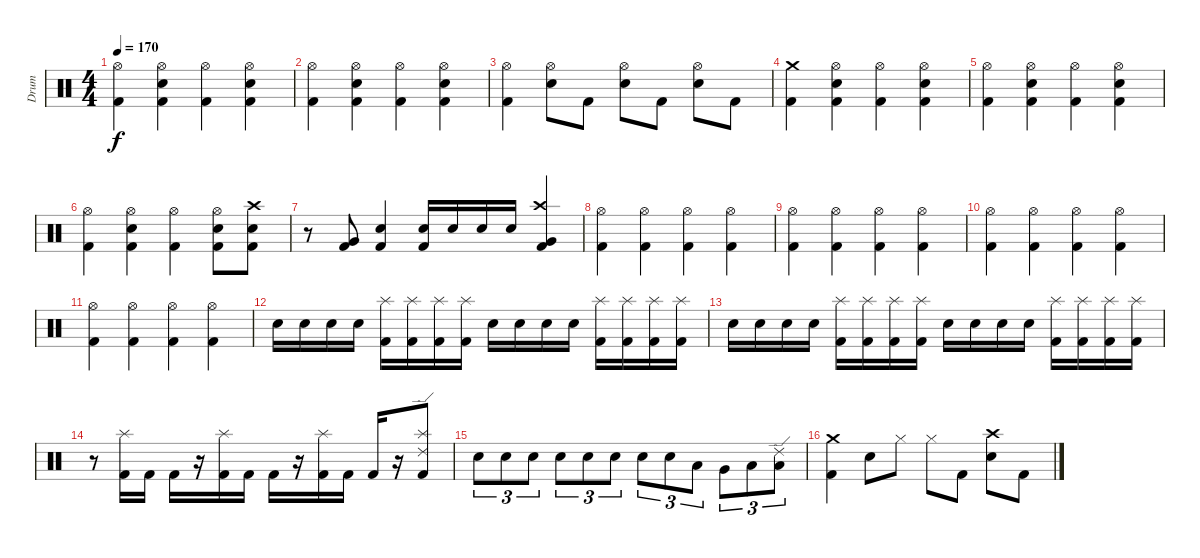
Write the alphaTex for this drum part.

\track ("Drum" "Drum") {instrument percussion}
\staff {score}
\articulation defaults
\ts (4 4)
\tempo 170
\clef neutral
\ks c
("Hi-Hat (open)" "Kick (hit) 2").4{dy f} ("Hi-Hat (open)" "Electric Snare (hit)" "Kick (hit) 2").4 ("Hi-Hat (open)" "Kick (hit) 2").4 ("Hi-Hat (open)" "Electric Snare (hit)" "Kick (hit) 2").4 |
("Hi-Hat (open)" "Kick (hit) 2").4 ("Hi-Hat (open)" "Electric Snare (hit)" "Kick (hit) 2").4 ("Hi-Hat (open)" "Kick (hit) 2").4 ("Hi-Hat (open)" "Electric Snare (hit)" "Kick (hit) 2").4 |
("Hi-Hat (open)" "Kick (hit) 2").4 ("Hi-Hat (open)" "Electric Snare (hit)").8 "Kick (hit) 2".8 ("Hi-Hat (open)" "Electric Snare (hit)").8 "Kick (hit) 2".8 ("Hi-Hat (open)" "Electric Snare (hit)").8 "Kick (hit) 2".8 |
("Crash medium (hit)" "Kick (hit) 2").4 ("Hi-Hat (open)" "Electric Snare (hit)" "Kick (hit) 2").4 ("Hi-Hat (open)" "Kick (hit) 2").4 ("Hi-Hat (open)" "Electric Snare (hit)" "Kick (hit) 2").4 |
("Hi-Hat (open)" "Kick (hit) 2").4 ("Hi-Hat (open)" "Electric Snare (hit)" "Kick (hit) 2").4 ("Hi-Hat (open)" "Kick (hit) 2").4 ("Hi-Hat (open)" "Electric Snare (hit)" "Kick (hit) 2").4 |
("Hi-Hat (open)" "Kick (hit) 2").4 ("Hi-Hat (open)" "Electric Snare (hit)" "Kick (hit) 2").4 ("Hi-Hat (open)" "Kick (hit) 2").4 ("Hi-Hat (open)" "Electric Snare (hit)" "Kick (hit) 2").8 ("Crash high (hit)" "Electric Snare (hit)" "Kick (hit) 2").8 |
r.8 ("Very Low Tom (hit)" "Kick (hit) 2").8 ("Electric Snare (hit)" "Kick (hit) 2").4 ("Electric Snare (hit)" "Kick (hit) 2").16 "Electric Snare (hit)".16 "Electric Snare (hit)".16 "Electric Snare (hit)".16 ("Crash high (hit)" "Very Low Tom (hit)" "Kick (hit) 2").4 |
("Hi-Hat (open)" "Kick (hit) 2").4 ("Hi-Hat (open)" "Kick (hit) 2").4 ("Hi-Hat (open)" "Kick (hit) 2").4 ("Hi-Hat (open)" "Kick (hit) 2").4 |
("Hi-Hat (open)" "Kick (hit) 2").4 ("Hi-Hat (open)" "Kick (hit) 2").4 ("Hi-Hat (open)" "Kick (hit) 2").4 ("Hi-Hat (open)" "Kick (hit) 2").4 |
("Hi-Hat (open)" "Kick (hit) 2").4 ("Hi-Hat (open)" "Kick (hit) 2").4 ("Hi-Hat (open)" "Kick (hit) 2").4 ("Hi-Hat (open)" "Kick (hit) 2").4 |
("Hi-Hat (open)" "Kick (hit) 2").4 ("Hi-Hat (open)" "Kick (hit) 2").4 ("Hi-Hat (open)" "Kick (hit) 2").4 ("Hi-Hat (open)" "Kick (hit) 2").4 |
"Electric Snare (hit)".16 "Electric Snare (hit)".16 "Electric Snare (hit)".16 "Electric Snare (hit)".16 ("Splash (hit)" "Kick (hit) 2").16 ("Splash (hit)" "Kick (hit) 2").16 ("Splash (hit)" "Kick (hit) 2").16 ("Splash (hit)" "Kick (hit) 2").16 "Electric Snare (hit)".16 "Electric Snare (hit)".16 "Electric Snare (hit)".16 "Electric Snare (hit)".16 ("Splash (hit)" "Kick (hit) 2").16 ("Splash (hit)" "Kick (hit) 2").16 ("Splash (hit)" "Kick (hit) 2").16 ("Splash (hit)" "Kick (hit) 2").16 |
"Electric Snare (hit)".16 "Electric Snare (hit)".16 "Electric Snare (hit)".16 "Electric Snare (hit)".16 ("Splash (hit)" "Kick (hit) 2").16 ("Splash (hit)" "Kick (hit) 2").16 ("Splash (hit)" "Kick (hit) 2").16 ("Splash (hit)" "Kick (hit) 2").16 "Electric Snare (hit)".16 "Electric Snare (hit)".16 "Electric Snare (hit)".16 "Electric Snare (hit)".16 ("Splash (hit)" "Kick (hit) 2").16 ("Splash (hit)" "Kick (hit) 2").16 ("Splash (hit)" "Kick (hit) 2").16 ("Splash (hit)" "Kick (hit) 2").16 |
r.8 ("Splash (hit)" "Kick (hit) 2").16 "Kick (hit) 2".16 "Kick (hit) 2".16 r.16 ("Splash (hit)" "Kick (hit) 2").16 "Kick (hit) 2".16 "Kick (hit) 2".16 r.16 ("Splash (hit)" "Kick (hit) 2").16 "Kick (hit) 2".16 "Kick (hit) 2".16 r.16 ("Splash (hit)" "Ride (edge) 2" "Kick (hit) 2").8 |
"Electric Snare (hit)".8{tu (3 2)} "Electric Snare (hit)".8{tu (3 2)} "Electric Snare (hit)".8{tu (3 2)} "Electric Snare (hit)".8{tu (3 2)} "Electric Snare (hit)".8{tu (3 2)} "Electric Snare (hit)".8{tu (3 2)} "Electric Snare (hit)".8{tu (3 2)} "Electric Snare (hit)".8{tu (3 2)} "Low Tom (hit)".8{tu (3 2)} "Very Low Tom (hit)".8{tu (3 2)} "Low Floor Tom (hit)".8{tu (3 2)} ("Ride (edge) 2" "Low Floor Tom (hit)").8{tu (3 2)} |
("Crash medium (hit)" "Kick (hit) 2").4 "Electric Snare (hit)".8 "Hi-Hat (closed)".8 "Hi-Hat (closed)".8 "Kick (hit) 2".8 ("Crash high (hit)" "Electric Snare (hit)").8 "Kick (hit) 2".8
